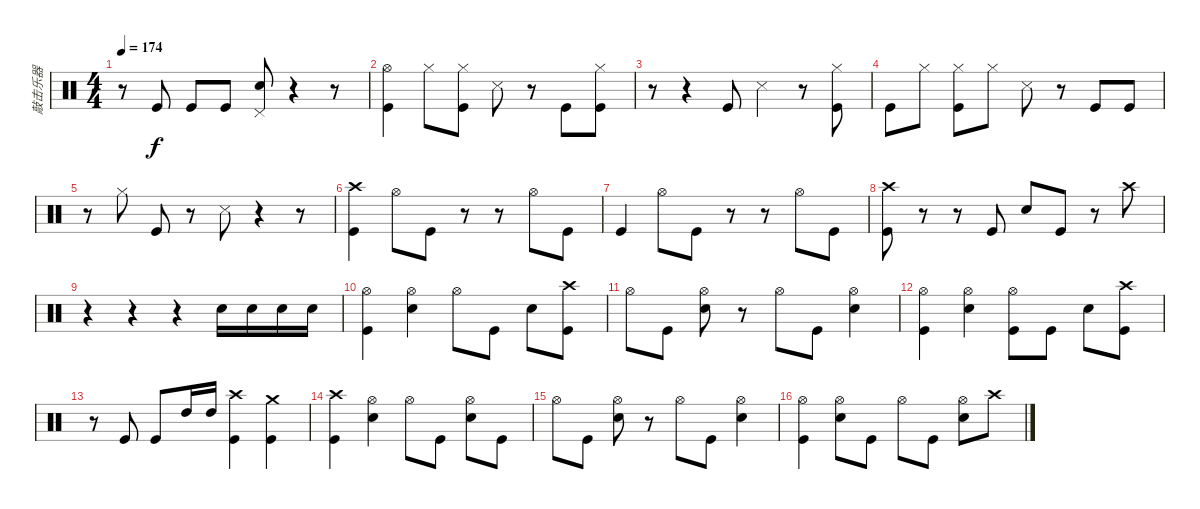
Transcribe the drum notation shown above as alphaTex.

\track ("敲击乐器" "敲击乐器") {instrument percussion}
\staff {score}
\articulation defaults
\ts (4 4)
\tempo 174
\clef neutral
\ks c
r.8{dy f} "Kick (hit)".8 "Kick (hit)".8 "Kick (hit)".8 ("Pedal Hi-Hat (hit)" "Electric Snare (hit)").8 r.4 r.8 |
("Kick (hit)" "Hi-Hat (open)").4 "Hi-Hat (closed)".8 ("Hi-Hat (closed)" "Kick (hit)").8 "Snare (side stick) 3".8 r.8 "Kick (hit)".8 ("Kick (hit)" "Hi-Hat (closed)").8 |
r.8 r.4 "Kick (hit)".8 "Snare (side stick) 3".4 r.8 ("Kick (hit)" "Hi-Hat (closed)").8 |
"Kick (hit)".8 "Hi-Hat (closed)".8 ("Kick (hit)" "Hi-Hat (closed)").8 "Hi-Hat (closed)".8 "Snare (side stick) 3".8 r.8 "Kick (hit)".8 "Kick (hit)".8 |
r.8 "Hi-Hat (closed)".8 "Kick (hit)".8 r.8 "Snare (side stick) 3".8 r.4 r.8 |
("Crash high (hit)" "Kick (hit)").4 "Hi-Hat (open)".8 "Kick (hit)".8 r.8 r.8 "Hi-Hat (open)".8 "Kick (hit)".8 |
"Kick (hit)".4 "Hi-Hat (open)".8 "Kick (hit)".8 r.8 r.8 "Hi-Hat (open)".8 "Kick (hit)".8 |
("Kick (hit)" "Crash high (hit)").8 r.8 r.8 "Kick (hit)".8 "Electric Snare (hit)".8 "Kick (hit)".8 r.8 "Crash high (hit)".8 |
r.4 r.4 r.4 "Electric Snare (hit)".16 "Electric Snare (hit)".16 "Electric Snare (hit)".16 "Electric Snare (hit)".16 |
("Hi-Hat (open)" "Kick (hit)").4 ("Hi-Hat (open)" "Electric Snare (hit)").4 "Hi-Hat (open)".8 "Kick (hit)".8 "Electric Snare (hit)".8 ("Kick (hit)" "Crash high (hit)").8 |
"Hi-Hat (open)".8 "Kick (hit)".8 ("Hi-Hat (open)" "Electric Snare (hit)").8 r.8 "Hi-Hat (open)".8 "Kick (hit)".8 ("Hi-Hat (open)" "Electric Snare (hit)").4 |
("Hi-Hat (open)" "Kick (hit)").4 ("Hi-Hat (open)" "Electric Snare (hit)").4 ("Hi-Hat (open)" "Kick (hit)").8 "Kick (hit)".8 "Electric Snare (hit)".8 ("Kick (hit)" "Crash high (hit)").8 |
r.8 "Kick (hit)".8 "Kick (hit)".8 "High Tom (hit)".16 "High Tom (hit)".16 ("Kick (hit)" "Crash high (hit)").4 ("Kick (hit)" "Crash medium (hit)").4 |
("Crash high (hit)" "Kick (hit)").4 ("Hi-Hat (open)" "Electric Snare (hit)").4 "Hi-Hat (open)".8 "Kick (hit)".8 ("Electric Snare (hit)" "Hi-Hat (open)").8 "Kick (hit)".8 |
"Hi-Hat (open)".8 "Kick (hit)".8 ("Hi-Hat (open)" "Electric Snare (hit)").8 r.8 "Hi-Hat (open)".8 "Kick (hit)".8 ("Hi-Hat (open)" "Electric Snare (hit)").4 |
("Kick (hit)" "Hi-Hat (open)").4 ("Electric Snare (hit)" "Hi-Hat (open)").8 "Kick (hit)".8 "Hi-Hat (open)".8 "Kick (hit)".8 ("Electric Snare (hit)" "Hi-Hat (open)").8 "Crash high (hit)".8
